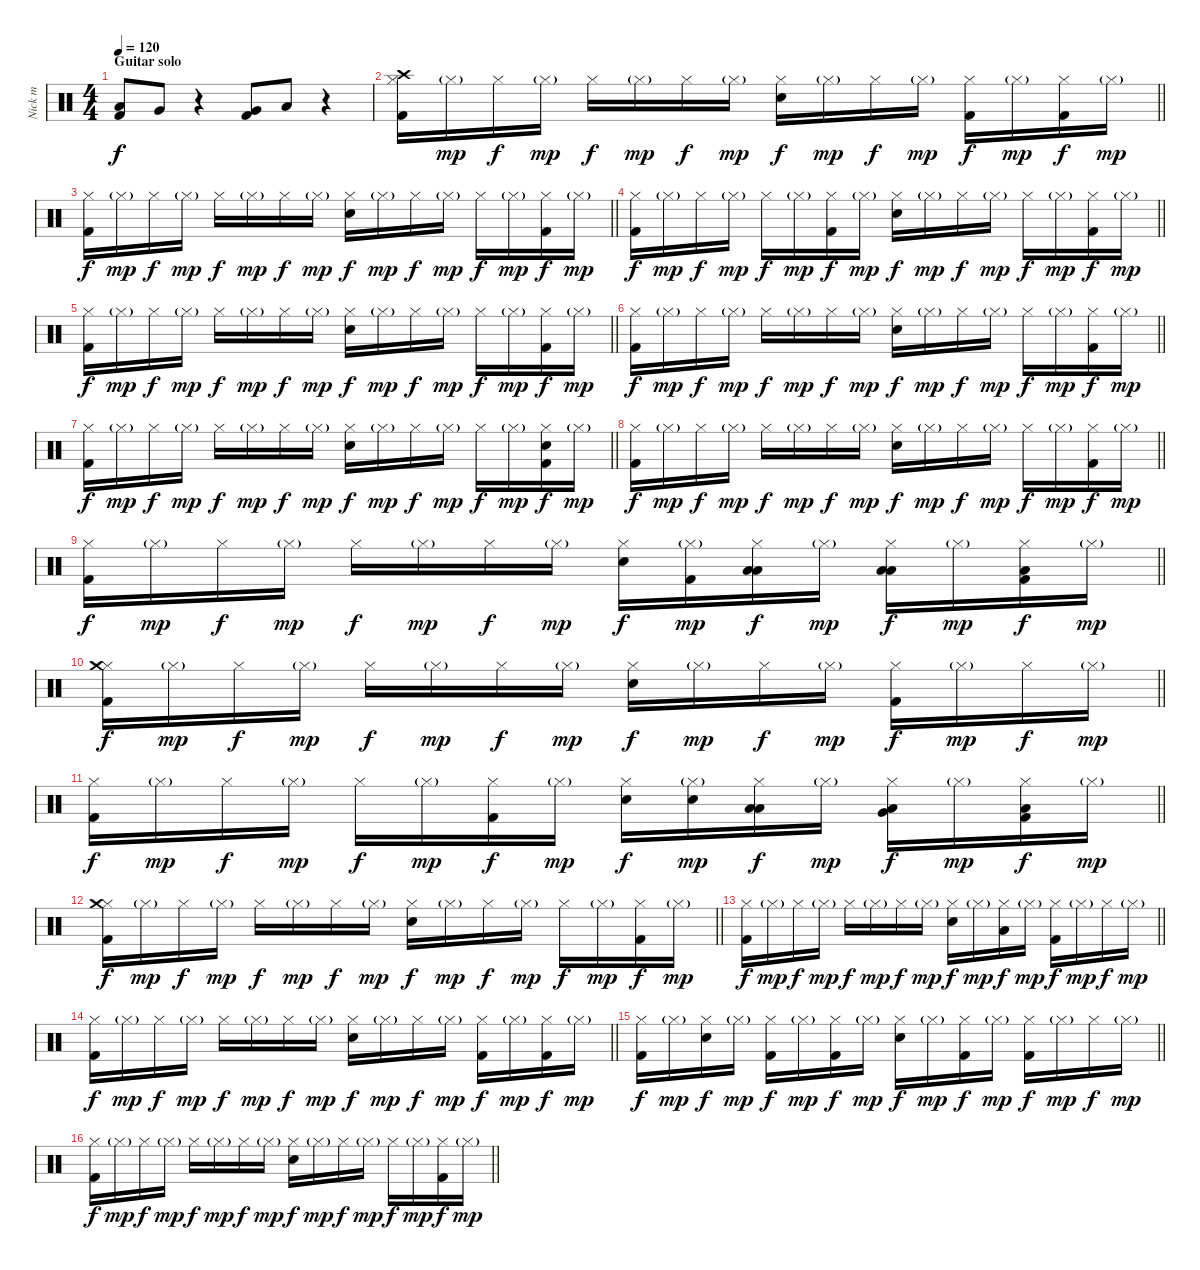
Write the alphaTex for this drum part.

\track ("Nick m" "Nick m") {instrument percussion}
\staff {score}
\articulation defaults
\ts (4 4)
\section ("" "Guitar solo")
\tempo 120
\clef neutral
\ks c
("Low Tom (hit)" "Kick (hit) 2").8{dy f} "Very Low Tom (hit)".8 r.4 ("Very Low Tom (hit)" "Kick (hit) 2").8 "Low Floor Tom (hit)".8 r.4 |
\barLineRight lightlight
("Hi-Hat (closed)" "Crash high (hit)" "Kick (hit) 2").16 "Hi-Hat (closed)"{g}.16{dy mp} "Hi-Hat (closed)".16{dy f} "Hi-Hat (closed)"{g}.16{dy mp} "Hi-Hat (closed)".16{dy f} "Hi-Hat (closed)"{g}.16{dy mp} "Hi-Hat (closed)".16{dy f} "Hi-Hat (closed)"{g}.16{dy mp} ("Hi-Hat (closed)" "Snare (hit) 2").16{dy f} "Hi-Hat (closed)"{g}.16{dy mp} "Hi-Hat (closed)".16{dy f} "Hi-Hat (closed)"{g}.16{dy mp} ("Hi-Hat (closed)" "Kick (hit) 2").16{dy f} "Hi-Hat (closed)"{g}.16{dy mp} ("Hi-Hat (closed)" "Kick (hit) 2").16{dy f} "Hi-Hat (closed)"{g}.16{dy mp} |
\barLineRight lightlight
("Hi-Hat (closed)" "Kick (hit) 2").16{dy f} "Hi-Hat (closed)"{g}.16{dy mp} "Hi-Hat (closed)".16{dy f} "Hi-Hat (closed)"{g}.16{dy mp} "Hi-Hat (closed)".16{dy f} "Hi-Hat (closed)"{g}.16{dy mp} "Hi-Hat (closed)".16{dy f} "Hi-Hat (closed)"{g}.16{dy mp} ("Hi-Hat (closed)" "Snare (hit) 2").16{dy f} "Hi-Hat (closed)"{g}.16{dy mp} "Hi-Hat (closed)".16{dy f} "Hi-Hat (closed)"{g}.16{dy mp} "Hi-Hat (closed)".16{dy f} "Hi-Hat (closed)"{g}.16{dy mp} ("Hi-Hat (closed)" "Kick (hit) 2").16{dy f} "Hi-Hat (closed)"{g}.16{dy mp} |
\barLineRight lightlight
("Hi-Hat (closed)" "Kick (hit) 2").16{dy f} "Hi-Hat (closed)"{g}.16{dy mp} "Hi-Hat (closed)".16{dy f} "Hi-Hat (closed)"{g}.16{dy mp} "Hi-Hat (closed)".16{dy f} "Hi-Hat (closed)"{g}.16{dy mp} ("Hi-Hat (closed)" "Kick (hit) 2").16{dy f} "Hi-Hat (closed)"{g}.16{dy mp} ("Hi-Hat (closed)" "Snare (hit) 2").16{dy f} "Hi-Hat (closed)"{g}.16{dy mp} "Hi-Hat (closed)".16{dy f} "Hi-Hat (closed)"{g}.16{dy mp} "Hi-Hat (closed)".16{dy f} "Hi-Hat (closed)"{g}.16{dy mp} ("Hi-Hat (closed)" "Kick (hit) 2").16{dy f} "Hi-Hat (closed)"{g}.16{dy mp} |
\barLineRight lightlight
("Hi-Hat (closed)" "Kick (hit) 2").16{dy f} "Hi-Hat (closed)"{g}.16{dy mp} "Hi-Hat (closed)".16{dy f} "Hi-Hat (closed)"{g}.16{dy mp} "Hi-Hat (closed)".16{dy f} "Hi-Hat (closed)"{g}.16{dy mp} "Hi-Hat (closed)".16{dy f} "Hi-Hat (closed)"{g}.16{dy mp} ("Hi-Hat (closed)" "Snare (hit) 2").16{dy f} "Hi-Hat (closed)"{g}.16{dy mp} "Hi-Hat (closed)".16{dy f} "Hi-Hat (closed)"{g}.16{dy mp} "Hi-Hat (closed)".16{dy f} "Hi-Hat (closed)"{g}.16{dy mp} ("Hi-Hat (closed)" "Kick (hit) 2").16{dy f} "Hi-Hat (closed)"{g}.16{dy mp} |
\barLineRight lightlight
("Hi-Hat (closed)" "Kick (hit) 2").16{dy f} "Hi-Hat (closed)"{g}.16{dy mp} "Hi-Hat (closed)".16{dy f} "Hi-Hat (closed)"{g}.16{dy mp} "Hi-Hat (closed)".16{dy f} "Hi-Hat (closed)"{g}.16{dy mp} "Hi-Hat (closed)".16{dy f} "Hi-Hat (closed)"{g}.16{dy mp} ("Hi-Hat (closed)" "Snare (hit) 2").16{dy f} "Hi-Hat (closed)"{g}.16{dy mp} "Hi-Hat (closed)".16{dy f} "Hi-Hat (closed)"{g}.16{dy mp} "Hi-Hat (closed)".16{dy f} "Hi-Hat (closed)"{g}.16{dy mp} ("Hi-Hat (closed)" "Kick (hit) 2").16{dy f} "Hi-Hat (closed)"{g}.16{dy mp} |
\barLineRight lightlight
("Hi-Hat (closed)" "Kick (hit) 2").16{dy f} "Hi-Hat (closed)"{g}.16{dy mp} "Hi-Hat (closed)".16{dy f} "Hi-Hat (closed)"{g}.16{dy mp} "Hi-Hat (closed)".16{dy f} "Hi-Hat (closed)"{g}.16{dy mp} "Hi-Hat (closed)".16{dy f} "Hi-Hat (closed)"{g}.16{dy mp} ("Hi-Hat (closed)" "Snare (hit) 2").16{dy f} "Hi-Hat (closed)"{g}.16{dy mp} "Hi-Hat (closed)".16{dy f} "Hi-Hat (closed)"{g}.16{dy mp} "Hi-Hat (closed)".16{dy f} "Hi-Hat (closed)"{g}.16{dy mp} ("Hi-Hat (closed)" "Snare (hit) 2" "Kick (hit) 2").16{dy f} "Hi-Hat (closed)"{g}.16{dy mp} |
\barLineRight lightlight
("Hi-Hat (closed)" "Kick (hit) 2").16{dy f} "Hi-Hat (closed)"{g}.16{dy mp} "Hi-Hat (closed)".16{dy f} "Hi-Hat (closed)"{g}.16{dy mp} "Hi-Hat (closed)".16{dy f} "Hi-Hat (closed)"{g}.16{dy mp} "Hi-Hat (closed)".16{dy f} "Hi-Hat (closed)"{g}.16{dy mp} ("Hi-Hat (closed)" "Snare (hit) 2").16{dy f} "Hi-Hat (closed)"{g}.16{dy mp} "Hi-Hat (closed)".16{dy f} "Hi-Hat (closed)"{g}.16{dy mp} "Hi-Hat (closed)".16{dy f} "Hi-Hat (closed)"{g}.16{dy mp} ("Hi-Hat (closed)" "Kick (hit) 2").16{dy f} "Hi-Hat (closed)"{g}.16{dy mp} |
\barLineRight lightlight
("Hi-Hat (closed)" "Kick (hit) 2").16{dy f} "Hi-Hat (closed)"{g}.16{dy mp} "Hi-Hat (closed)".16{dy f} "Hi-Hat (closed)"{g}.16{dy mp} "Hi-Hat (closed)".16{dy f} "Hi-Hat (closed)"{g}.16{dy mp} "Hi-Hat (closed)".16{dy f} "Hi-Hat (closed)"{g}.16{dy mp} ("Hi-Hat (closed)" "Snare (hit) 2").16{dy f} ("Hi-Hat (closed)"{g} "Kick (hit) 2").16{dy mp} ("Hi-Hat (closed)" "Low Tom (hit)" "Low Floor Tom (hit)").16{dy f} "Hi-Hat (closed)"{g}.16{dy mp} ("Hi-Hat (closed)" "Low Floor Tom (hit)" "Low Tom (hit)").16{dy f} "Hi-Hat (closed)"{g}.16{dy mp} ("Hi-Hat (closed)" "Low Floor Tom (hit)" "Kick (hit) 2").16{dy f} "Hi-Hat (closed)"{g}.16{dy mp} |
\barLineRight lightlight
("Hi-Hat (closed)" "Crash medium (hit)" "Kick (hit) 2").16{dy f} "Hi-Hat (closed)"{g}.16{dy mp} "Hi-Hat (closed)".16{dy f} "Hi-Hat (closed)"{g}.16{dy mp} "Hi-Hat (closed)".16{dy f} "Hi-Hat (closed)"{g}.16{dy mp} "Hi-Hat (closed)".16{dy f} "Hi-Hat (closed)"{g}.16{dy mp} ("Hi-Hat (closed)" "Snare (hit) 2").16{dy f} "Hi-Hat (closed)"{g}.16{dy mp} "Hi-Hat (closed)".16{dy f} "Hi-Hat (closed)"{g}.16{dy mp} ("Hi-Hat (closed)" "Kick (hit) 2").16{dy f} "Hi-Hat (closed)"{g}.16{dy mp} "Hi-Hat (closed)".16{dy f} "Hi-Hat (closed)"{g}.16{dy mp} |
\barLineRight lightlight
("Hi-Hat (closed)" "Kick (hit) 2").16{dy f} "Hi-Hat (closed)"{g}.16{dy mp} "Hi-Hat (closed)".16{dy f} "Hi-Hat (closed)"{g}.16{dy mp} "Hi-Hat (closed)".16{dy f} "Hi-Hat (closed)"{g}.16{dy mp} ("Hi-Hat (closed)" "Kick (hit) 2").16{dy f} "Hi-Hat (closed)"{g}.16{dy mp} ("Hi-Hat (closed)" "Snare (hit) 2").16{dy f} ("Hi-Hat (closed)"{g} "Snare (hit) 2").16{dy mp} ("Hi-Hat (closed)" "Low Tom (hit)" "Low Tom (hit)").16{dy f} "Hi-Hat (closed)"{g}.16{dy mp} ("Hi-Hat (closed)" "Low Tom (hit)" "Very Low Tom (hit)").16{dy f} "Hi-Hat (closed)"{g}.16{dy mp} ("Hi-Hat (closed)" "Low Floor Tom (hit)" "Kick (hit) 2").16{dy f} "Hi-Hat (closed)"{g}.16{dy mp} |
\barLineRight lightlight
("Hi-Hat (closed)" "Crash medium (hit)" "Kick (hit) 2").16{dy f} "Hi-Hat (closed)"{g}.16{dy mp} "Hi-Hat (closed)".16{dy f} "Hi-Hat (closed)"{g}.16{dy mp} "Hi-Hat (closed)".16{dy f} "Hi-Hat (closed)"{g}.16{dy mp} "Hi-Hat (closed)".16{dy f} "Hi-Hat (closed)"{g}.16{dy mp} ("Hi-Hat (closed)" "Snare (hit) 2").16{dy f} "Hi-Hat (closed)"{g}.16{dy mp} "Hi-Hat (closed)".16{dy f} "Hi-Hat (closed)"{g}.16{dy mp} "Hi-Hat (closed)".16{dy f} "Hi-Hat (closed)"{g}.16{dy mp} ("Hi-Hat (closed)" "Kick (hit) 2").16{dy f} "Hi-Hat (closed)"{g}.16{dy mp} |
\barLineRight lightlight
("Hi-Hat (closed)" "Kick (hit) 2").16{dy f} "Hi-Hat (closed)"{g}.16{dy mp} "Hi-Hat (closed)".16{dy f} "Hi-Hat (closed)"{g}.16{dy mp} "Hi-Hat (closed)".16{dy f} "Hi-Hat (closed)"{g}.16{dy mp} "Hi-Hat (closed)".16{dy f} "Hi-Hat (closed)"{g}.16{dy mp} ("Hi-Hat (closed)" "Snare (hit) 2").16{dy f} "Hi-Hat (closed)"{g}.16{dy mp} ("Hi-Hat (closed)" "Low Floor Tom (hit)").16{dy f} "Hi-Hat (closed)"{g}.16{dy mp} ("Hi-Hat (closed)" "Kick (hit) 2").16{dy f} "Hi-Hat (closed)"{g}.16{dy mp} "Hi-Hat (closed)".16{dy f} "Hi-Hat (closed)"{g}.16{dy mp} |
\barLineRight lightlight
("Hi-Hat (closed)" "Kick (hit) 2").16{dy f} "Hi-Hat (closed)"{g}.16{dy mp} "Hi-Hat (closed)".16{dy f} "Hi-Hat (closed)"{g}.16{dy mp} "Hi-Hat (closed)".16{dy f} "Hi-Hat (closed)"{g}.16{dy mp} "Hi-Hat (closed)".16{dy f} "Hi-Hat (closed)"{g}.16{dy mp} ("Hi-Hat (closed)" "Snare (hit) 2").16{dy f} "Hi-Hat (closed)"{g}.16{dy mp} "Hi-Hat (closed)".16{dy f} "Hi-Hat (closed)"{g}.16{dy mp} ("Hi-Hat (closed)" "Kick (hit) 2").16{dy f} "Hi-Hat (closed)"{g}.16{dy mp} ("Hi-Hat (closed)" "Kick (hit) 2").16{dy f} "Hi-Hat (closed)"{g}.16{dy mp} |
\barLineRight lightlight
("Hi-Hat (closed)" "Kick (hit) 2").16{dy f} "Hi-Hat (closed)"{g}.16{dy mp} ("Hi-Hat (closed)" "Snare (hit) 2").16{dy f} "Hi-Hat (closed)"{g}.16{dy mp} ("Hi-Hat (closed)" "Kick (hit) 2").16{dy f} "Hi-Hat (closed)"{g}.16{dy mp} ("Hi-Hat (closed)" "Kick (hit) 2").16{dy f} "Hi-Hat (closed)"{g}.16{dy mp} ("Hi-Hat (closed)" "Snare (hit) 2").16{dy f} "Hi-Hat (closed)"{g}.16{dy mp} ("Hi-Hat (closed)" "Kick (hit) 2").16{dy f} "Hi-Hat (closed)"{g}.16{dy mp} ("Hi-Hat (closed)" "Kick (hit) 2").16{dy f} "Hi-Hat (closed)"{g}.16{dy mp} "Hi-Hat (closed)".16{dy f} "Hi-Hat (closed)"{g}.16{dy mp} |
\barLineRight lightlight
("Hi-Hat (closed)" "Kick (hit) 2").16{dy f} "Hi-Hat (closed)"{g}.16{dy mp} "Hi-Hat (closed)".16{dy f} "Hi-Hat (closed)"{g}.16{dy mp} "Hi-Hat (closed)".16{dy f} "Hi-Hat (closed)"{g}.16{dy mp} "Hi-Hat (closed)".16{dy f} "Hi-Hat (closed)"{g}.16{dy mp} ("Hi-Hat (closed)" "Snare (hit) 2").16{dy f} "Hi-Hat (closed)"{g}.16{dy mp} "Hi-Hat (closed)".16{dy f} "Hi-Hat (closed)"{g}.16{dy mp} "Hi-Hat (closed)".16{dy f} "Hi-Hat (closed)"{g}.16{dy mp} ("Hi-Hat (closed)" "Kick (hit) 2").16{dy f} "Hi-Hat (closed)"{g}.16{dy mp}
